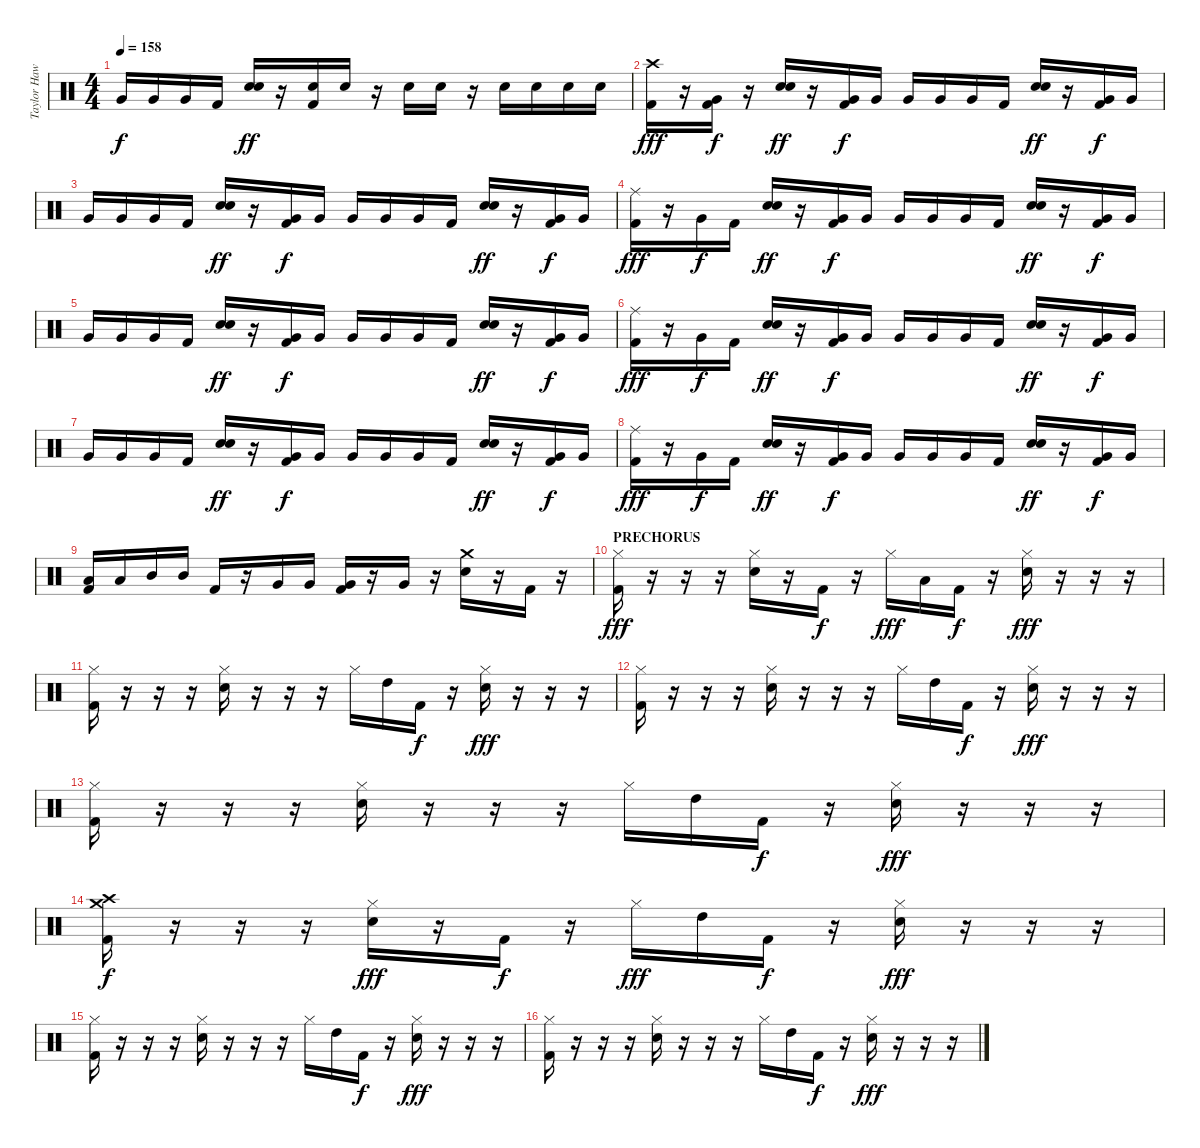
\track ("Taylor Hawkins (Drums)" "Taylor Haw") {instrument percussion}
\staff {score}
\articulation defaults
\ts (4 4)
\tempo 158
\clef neutral
\ks c "Very Low Tom (hit)".16{dy f} "Very Low Tom (hit)".16 "Very Low Tom (hit)".16 "Kick (hit) 2".16
("Electric Snare (hit)" "Electric Snare (hit)").16{bu 120 dy ff} r.16 ("Electric Snare (hit)" "Kick (hit) 2").16 "Electric Snare (hit)".16 r.16 "Electric Snare (hit)".16 "Electric Snare (hit)".16 r.16 "Electric Snare (hit)".16 "Electric Snare (hit)".16 "Electric Snare (hit)".16 "Electric Snare (hit)".16 |
("Crash high (hit)" "Kick (hit) 2").16{dy fff} r.16 ("Very Low Tom (hit)" "Kick (hit) 2").16{dy f} r.16 ("Electric Snare (hit)" "Electric Snare (hit)").16{bu 120 dy ff} r.16 ("Very Low Tom (hit)" "Kick (hit) 2").16{dy f} "Very Low Tom (hit)".16 "Very Low Tom (hit)".16 "Very Low Tom (hit)".16 "Very Low Tom (hit)".16 "Kick (hit) 2".16 ("Electric Snare (hit)" "Electric Snare (hit)").16{bu 120 dy ff} r.16 ("Very Low Tom (hit)" "Kick (hit) 2").16{dy f} "Very Low Tom (hit)".16 |
"Very Low Tom (hit)".16 "Very Low Tom (hit)".16 "Very Low Tom (hit)".16 "Kick (hit) 2".16 ("Electric Snare (hit)" "Electric Snare (hit)").16{bu 120 dy ff} r.16 ("Very Low Tom (hit)" "Kick (hit) 2").16{dy f} "Very Low Tom (hit)".16 "Very Low Tom (hit)".16 "Very Low Tom (hit)".16 "Very Low Tom (hit)".16 "Kick (hit) 2".16 ("Electric Snare (hit)" "Electric Snare (hit)").16{bu 120 dy ff} r.16 ("Very Low Tom (hit)" "Kick (hit) 2").16{dy f} "Very Low Tom (hit)".16 |
("Ride (middle)" "Kick (hit) 2").16{dy fff} r.16 "Very Low Tom (hit)".16{dy f} "Kick (hit) 2".16 ("Electric Snare (hit)" "Electric Snare (hit)").16{bu 120 dy ff} r.16 ("Very Low Tom (hit)" "Kick (hit) 2").16{dy f} "Very Low Tom (hit)".16 "Very Low Tom (hit)".16 "Very Low Tom (hit)".16 "Very Low Tom (hit)".16 "Kick (hit) 2".16 ("Electric Snare (hit)" "Electric Snare (hit)").16{bu 120 dy ff} r.16 ("Very Low Tom (hit)" "Kick (hit) 2").16{dy f} "Very Low Tom (hit)".16 |
"Very Low Tom (hit)".16 "Very Low Tom (hit)".16 "Very Low Tom (hit)".16 "Kick (hit) 2".16 ("Electric Snare (hit)" "Electric Snare (hit)").16{bu 120 dy ff} r.16 ("Very Low Tom (hit)" "Kick (hit) 2").16{dy f} "Very Low Tom (hit)".16 "Very Low Tom (hit)".16 "Very Low Tom (hit)".16 "Very Low Tom (hit)".16 "Kick (hit) 2".16 ("Electric Snare (hit)" "Electric Snare (hit)").16{bu 120 dy ff} r.16 ("Very Low Tom (hit)" "Kick (hit) 2").16{dy f} "Very Low Tom (hit)".16 |
("Ride (middle)" "Kick (hit) 2").16{dy fff} r.16 "Very Low Tom (hit)".16{dy f} "Kick (hit) 2".16 ("Electric Snare (hit)" "Electric Snare (hit)").16{bu 120 dy ff} r.16 ("Very Low Tom (hit)" "Kick (hit) 2").16{dy f} "Very Low Tom (hit)".16 "Very Low Tom (hit)".16 "Very Low Tom (hit)".16 "Very Low Tom (hit)".16 "Kick (hit) 2".16 ("Electric Snare (hit)" "Electric Snare (hit)").16{bu 120 dy ff} r.16 ("Very Low Tom (hit)" "Kick (hit) 2").16{dy f} "Very Low Tom (hit)".16 |
"Very Low Tom (hit)".16 "Very Low Tom (hit)".16 "Very Low Tom (hit)".16 "Kick (hit) 2".16 ("Electric Snare (hit)" "Electric Snare (hit)").16{bu 120 dy ff} r.16 ("Very Low Tom (hit)" "Kick (hit) 2").16{dy f} "Very Low Tom (hit)".16 "Very Low Tom (hit)".16 "Very Low Tom (hit)".16 "Very Low Tom (hit)".16 "Kick (hit) 2".16 ("Electric Snare (hit)" "Electric Snare (hit)").16{bu 120 dy ff} r.16 ("Very Low Tom (hit)" "Kick (hit) 2").16{dy f} "Very Low Tom (hit)".16 |
("Ride (middle)" "Kick (hit) 2").16{dy fff} r.16 "Very Low Tom (hit)".16{dy f} "Kick (hit) 2".16 ("Electric Snare (hit)" "Electric Snare (hit)").16{bu 120 dy ff} r.16 ("Very Low Tom (hit)" "Kick (hit) 2").16{dy f} "Very Low Tom (hit)".16 "Very Low Tom (hit)".16 "Very Low Tom (hit)".16 "Very Low Tom (hit)".16 "Kick (hit) 2".16 ("Electric Snare (hit)" "Electric Snare (hit)").16{bu 120 dy ff} r.16 ("Very Low Tom (hit)" "Kick (hit) 2").16{dy f} "Very Low Tom (hit)".16 |
("Low Tom (hit)" "Kick (hit) 2").16 "Low Tom (hit)".16 "Mid Tom (hit)".16 "Mid Tom (hit)".16 "Kick (hit) 2".16 r.16 "Very Low Tom (hit)".16 "Very Low Tom (hit)".16 ("Very Low Tom (hit)" "Kick (hit) 2").16 r.16 "Very Low Tom (hit)".16 r.16 ("Crash medium (hit)" "Electric Snare (hit)").16 r.16 "Kick (hit) 2".16 r.16 |
\section ("" "PRECHORUS")
("Hi-Hat (closed)" "Kick (hit) 2").16{dy fff} r.16 r.16 r.16 ("Hi-Hat (closed)" "Electric Snare (hit)").16 r.16 "Kick (hit) 2".16{dy f} r.16 "Hi-Hat (closed)".16{dy fff} "Low Tom (hit)".16 "Kick (hit) 2".16{dy f} r.16 ("Hi-Hat (closed)" "Electric Snare (hit)").16{dy fff} r.16 r.16 r.16 |
("Hi-Hat (closed)" "Kick (hit) 2").16 r.16 r.16 r.16 ("Hi-Hat (closed)" "Electric Snare (hit)").16 r.16 r.16 r.16 "Hi-Hat (closed)".16 "High Tom (hit)".16 "Kick (hit) 2".16{dy f} r.16 ("Hi-Hat (closed)" "Electric Snare (hit)").16{dy fff} r.16 r.16 r.16 |
("Hi-Hat (closed)" "Kick (hit) 2").16 r.16 r.16 r.16 ("Hi-Hat (closed)" "Electric Snare (hit)").16 r.16 r.16 r.16 "Hi-Hat (closed)".16 "High Tom (hit)".16 "Kick (hit) 2".16{dy f} r.16 ("Hi-Hat (closed)" "Electric Snare (hit)").16{dy fff} r.16 r.16 r.16 |
("Hi-Hat (closed)" "Kick (hit) 2").16 r.16 r.16 r.16 ("Hi-Hat (closed)" "Electric Snare (hit)").16 r.16 r.16 r.16 "Hi-Hat (closed)".16 "High Tom (hit)".16 "Kick (hit) 2".16{dy f} r.16 ("Hi-Hat (closed)" "Electric Snare (hit)").16{dy fff} r.16 r.16 r.16 |
("Crash high (hit)" "Crash medium (hit)" "Kick (hit) 2").16{dy f} r.16 r.16 r.16 ("Hi-Hat (closed)" "Electric Snare (hit)").16{dy fff} r.16 "Kick (hit) 2".16{dy f} r.16 "Hi-Hat (closed)".16{dy fff} "High Tom (hit)".16 "Kick (hit) 2".16{dy f} r.16 ("Hi-Hat (closed)" "Electric Snare (hit)").16{dy fff} r.16 r.16 r.16 |
("Hi-Hat (closed)" "Kick (hit) 2").16 r.16 r.16 r.16 ("Hi-Hat (closed)" "Electric Snare (hit)").16 r.16 r.16 r.16 "Hi-Hat (closed)".16 "High Tom (hit)".16 "Kick (hit) 2".16{dy f} r.16 ("Hi-Hat (closed)" "Electric Snare (hit)").16{dy fff} r.16 r.16 r.16 |
("Hi-Hat (closed)" "Kick (hit) 2").16 r.16 r.16 r.16 ("Hi-Hat (closed)" "Electric Snare (hit)").16 r.16 r.16 r.16 "Hi-Hat (closed)".16 "High Tom (hit)".16 "Kick (hit) 2".16{dy f} r.16 ("Hi-Hat (closed)" "Electric Snare (hit)").16{dy fff} r.16 r.16 r.16
